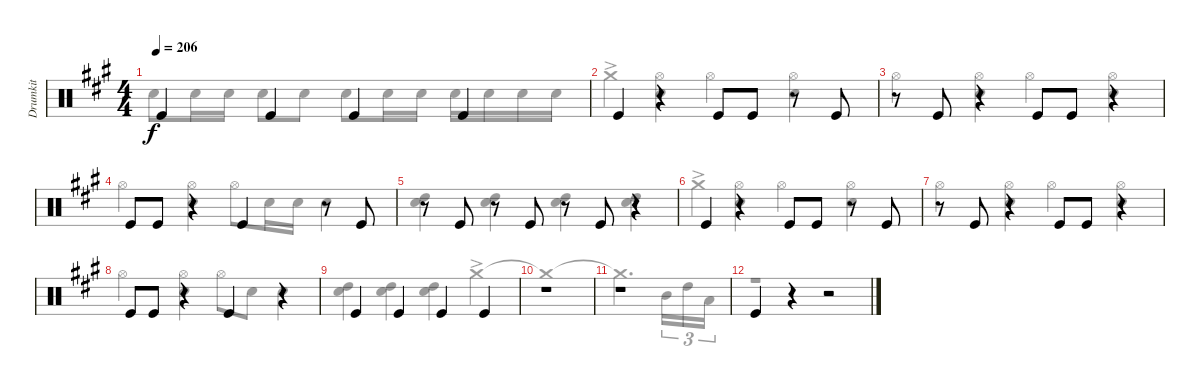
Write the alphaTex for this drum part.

\track ("Drumkit" "Drumkit") {instrument percussion}
\staff {score}
\articulation defaults
\voice
\ts (4 4)
\tempo 206
\clef neutral
\ks a "Kick (hit)".4{dy f} "Kick (hit)".4 "Kick (hit)".4 "Kick (hit)".4
|
"Kick (hit)".4 r.4 "Kick (hit)".8 "Kick (hit)".8 r.8 "Kick (hit)".8 |
r.8 "Kick (hit)".8 r.4 "Kick (hit)".8 "Kick (hit)".8 r.4 |
"Kick (hit)".8 "Kick (hit)".8 r.4 "Kick (hit)".4 r.8 "Kick (hit)".8 |
r.8 "Kick (hit)".8 r.8 "Kick (hit)".8 r.8 "Kick (hit)".8 r.4 |
"Kick (hit)".4 r.4 "Kick (hit)".8 "Kick (hit)".8 r.8 "Kick (hit)".8 |
r.8 "Kick (hit)".8 r.4 "Kick (hit)".8 "Kick (hit)".8 r.4 |
"Kick (hit)".8 "Kick (hit)".8 r.4 "Kick (hit)".4 r.4 |
"Kick (hit)".4 "Kick (hit)".4 "Kick (hit)".4 "Kick (hit)".4 |
r.1 |
r.1 |
"Kick (hit)".4 r.4 r.2
\voice
\clef neutral
\ottava regular
\simile none
\ks a "Snare (hit) 2".8{dy f} "Snare (hit) 2".16 "Snare (hit) 2".16 "Snare (hit) 2".8 "Snare (hit) 2".8 "Snare (hit) 2".8 "Snare (hit) 2".16 "Snare (hit) 2".16 "Snare (hit) 2".16 "Snare (hit) 2".16 "Snare (hit) 2".16 "Snare (hit) 2".16
|
"Crash medium (hit)"{ac}.4 ("Hi-Hat (open)" "Snare (hit) 2").4 "Hi-Hat (open)".4 ("Hi-Hat (open)" "Snare (hit) 2").4 |
"Hi-Hat (open)".4 ("Hi-Hat (open)" "Snare (hit) 2").4 "Hi-Hat (open)".4 ("Hi-Hat (open)" "Snare (hit) 2").4 |
"Hi-Hat (open)".4 ("Hi-Hat (open)" "Snare (hit) 2").4 "Hi-Hat (open)".8 "Snare (hit) 2".16 "Snare (hit) 2".16 "Snare (hit) 2".4 |
("Snare (hit) 2" "High Tom (hit)").4 ("High Tom (hit)" "Snare (hit) 2").4 ("High Tom (hit)" "Snare (hit) 2").4 ("High Tom (hit)" "Snare (hit) 2").4 |
"Crash medium (hit)"{ac}.4 ("Hi-Hat (open)" "Snare (hit) 2").4 "Hi-Hat (open)".4 ("Hi-Hat (open)" "Snare (hit) 2").4 |
"Hi-Hat (open)".4 ("Hi-Hat (open)" "Snare (hit) 2").4 "Hi-Hat (open)".4 ("Hi-Hat (open)" "Snare (hit) 2").4 |
"Hi-Hat (open)".4 ("Hi-Hat (open)" "Snare (hit) 2").4 "Hi-Hat (open)".8 "Snare (hit) 2".8 "Snare (hit) 2".4 |
("Snare (hit) 2" "High Tom (hit)").4 ("High Tom (hit)" "Snare (hit) 2").4 ("Snare (hit) 2" "High Tom (hit)").4 "Crash medium (hit)"{ac}.4 |
"Crash medium (hit)"{t}.1 |
"Crash medium (hit)"{t}.2{d} "Mid Tom (hit)".16{tu (3 2)} "High Tom (hit)".16{tu (3 2)} "Low Tom (hit)".16{tu (3 2)} |
r.1
